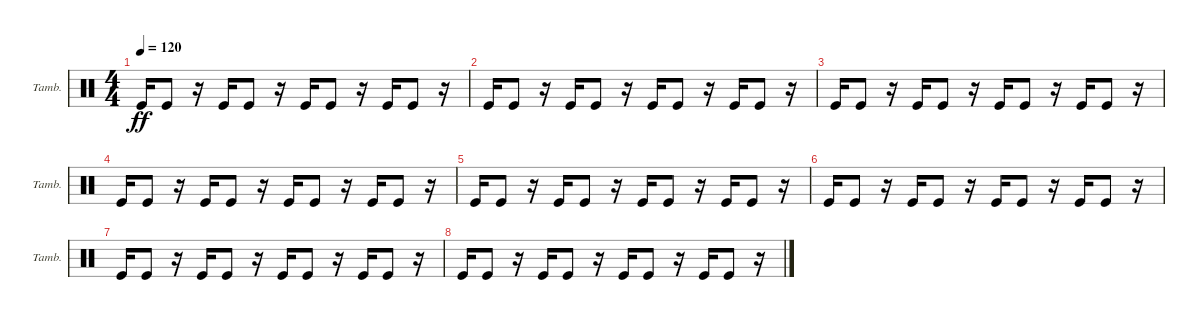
\bracketExtendMode groupsimilarinstruments
\singleTrackTrackNamePolicy allsystems
\multiTrackTrackNamePolicy allsystems
\firstSystemTrackNameOrientation horizontal
\otherSystemsTrackNameOrientation horizontal
\track ("Tambourine" "Tamb.") {instrument percussion}
\staff {score}
\articulation defaults
\ts (4 4)
\tempo 120
\clef neutral
\scale
0.333333
\ks c "Kick (hit)".16{dy ff} "Kick (hit)".8
r.16 "Kick (hit)".16 "Kick (hit)".8 r.16 "Kick (hit)".16 "Kick (hit)".8 r.16 "Kick (hit)".16 "Kick (hit)".8 r.16 |
\scale
0.333333 "Kick (hit)".16 "Kick (hit)".8 r.16 "Kick (hit)".16 "Kick (hit)".8 r.16 "Kick (hit)".16 "Kick (hit)".8 r.16 "Kick (hit)".16 "Kick (hit)".8 r.16 |
\scale
0.333333 "Kick (hit)".16 "Kick (hit)".8 r.16 "Kick (hit)".16 "Kick (hit)".8 r.16 "Kick (hit)".16 "Kick (hit)".8 r.16 "Kick (hit)".16 "Kick (hit)".8 r.16 |
\scale
0.333333 "Kick (hit)".16 "Kick (hit)".8 r.16 "Kick (hit)".16 "Kick (hit)".8 r.16 "Kick (hit)".16 "Kick (hit)".8 r.16 "Kick (hit)".16 "Kick (hit)".8 r.16 |
\scale
0.333333 "Kick (hit)".16 "Kick (hit)".8 r.16 "Kick (hit)".16 "Kick (hit)".8 r.16 "Kick (hit)".16 "Kick (hit)".8 r.16 "Kick (hit)".16 "Kick (hit)".8 r.16 |
\scale
0.333333 "Kick (hit)".16 "Kick (hit)".8 r.16 "Kick (hit)".16 "Kick (hit)".8 r.16 "Kick (hit)".16 "Kick (hit)".8 r.16 "Kick (hit)".16 "Kick (hit)".8 r.16 |
\scale
0.333333 "Kick (hit)".16 "Kick (hit)".8 r.16 "Kick (hit)".16 "Kick (hit)".8 r.16 "Kick (hit)".16 "Kick (hit)".8 r.16 "Kick (hit)".16 "Kick (hit)".8 r.16 |
\scale
0.333333 "Kick (hit)".16 "Kick (hit)".8 r.16 "Kick (hit)".16 "Kick (hit)".8 r.16 "Kick (hit)".16 "Kick (hit)".8 r.16 "Kick (hit)".16 "Kick (hit)".8 r.16
